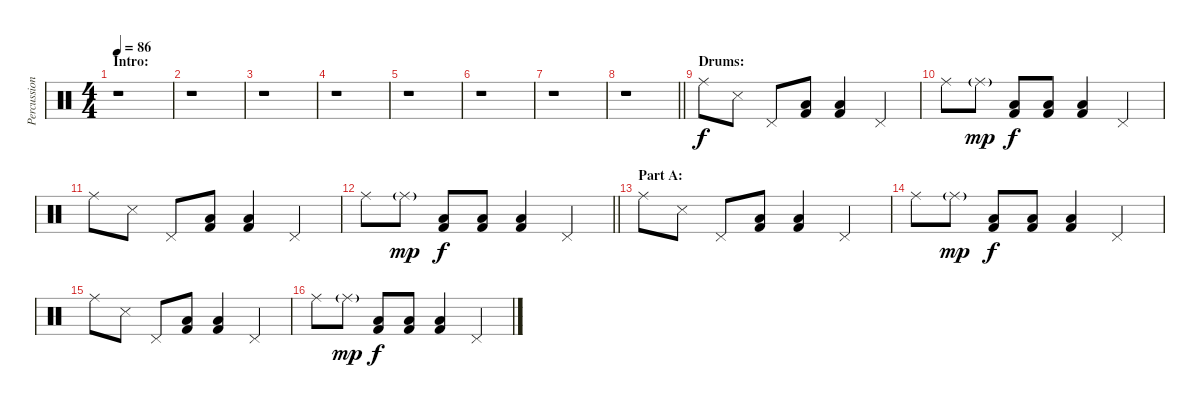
\track ("Percussion" "Percussion") {instrument percussion}
\staff {score}
\articulation defaults
\ts (4 4)
\section ("" "Intro:")
\tempo 86
\clef neutral
\ks c
r.1{dy f} |
r.1 |
r.1 |
r.1 |
r.1 |
r.1 |
r.1 |
\barLineRight lightlight
r.1 |
\section ("" "Drums:")
"Ride (middle)".8 "Snare (side stick) 3".8 "Pedal Hi-Hat (hit)".8 ("Low Tom (hit)" "Kick (hit) 2").8 ("Low Tom (hit)" "Kick (hit) 2").4 "Pedal Hi-Hat (hit)".4 |
"Ride (middle)".8 "Ride (middle)"{g}.8{dy mp} ("Low Tom (hit)" "Kick (hit) 2").8{dy f} ("Low Tom (hit)" "Kick (hit) 2").8 ("Low Tom (hit)" "Kick (hit) 2").4 "Pedal Hi-Hat (hit)".4 |
"Ride (middle)".8 "Snare (side stick) 3".8 "Pedal Hi-Hat (hit)".8 ("Low Tom (hit)" "Kick (hit) 2").8 ("Low Tom (hit)" "Kick (hit) 2").4 "Pedal Hi-Hat (hit)".4 |
\barLineRight lightlight "Ride (middle)".8 "Ride (middle)"{g}.8{dy mp}
("Low Tom (hit)" "Kick (hit) 2").8{dy f} ("Low Tom (hit)" "Kick (hit) 2").8 ("Low Tom (hit)" "Kick (hit) 2").4 "Pedal Hi-Hat (hit)".4 |
\section ("" "Part A:")
"Ride (middle)".8 "Snare (side stick) 3".8 "Pedal Hi-Hat (hit)".8 ("Low Tom (hit)" "Kick (hit) 2").8 ("Low Tom (hit)" "Kick (hit) 2").4 "Pedal Hi-Hat (hit)".4 |
"Ride (middle)".8 "Ride (middle)"{g}.8{dy mp} ("Low Tom (hit)" "Kick (hit) 2").8{dy f} ("Low Tom (hit)" "Kick (hit) 2").8 ("Low Tom (hit)" "Kick (hit) 2").4 "Pedal Hi-Hat (hit)".4 |
"Ride (middle)".8 "Snare (side stick) 3".8 "Pedal Hi-Hat (hit)".8 ("Low Tom (hit)" "Kick (hit) 2").8 ("Low Tom (hit)" "Kick (hit) 2").4 "Pedal Hi-Hat (hit)".4 |
"Ride (middle)".8 "Ride (middle)"{g}.8{dy mp} ("Low Tom (hit)" "Kick (hit) 2").8{dy f} ("Low Tom (hit)" "Kick (hit) 2").8 ("Low Tom (hit)" "Kick (hit) 2").4 "Pedal Hi-Hat (hit)".4
